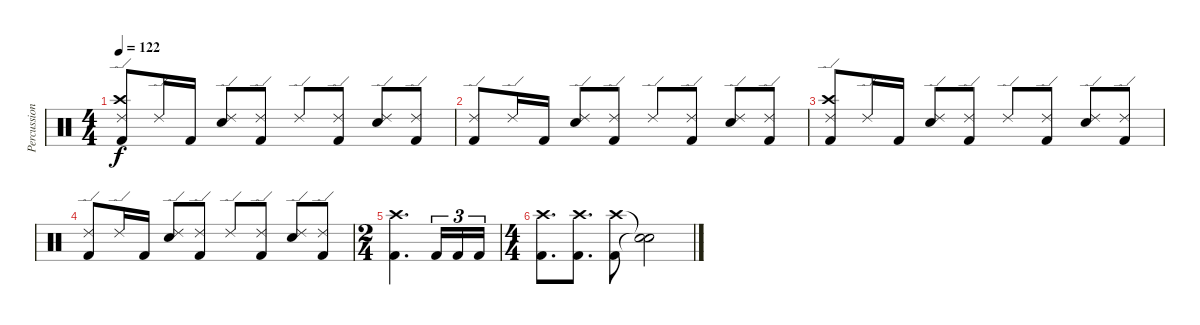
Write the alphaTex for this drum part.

\track ("Percussion" "Percussion") {instrument percussion}
\staff {score}
\articulation defaults
\ts (4 4)
\tempo 122
\clef neutral
\ks c
("Ride (edge) 2" "Crash high (hit)" "Kick (hit) 2").8{dy f} "Ride (edge) 2".16 "Kick (hit) 2".16 ("Ride (edge) 2" "Electric Snare (hit)").8 ("Ride (edge) 2" "Kick (hit) 2").8 "Ride (edge) 2".8 ("Ride (edge) 2" "Kick (hit) 2").8 ("Ride (edge) 2" "Electric Snare (hit)").8 ("Ride (edge) 2" "Kick (hit) 2").8 |
("Ride (edge) 2" "Kick (hit) 2").8 "Ride (edge) 2".16 "Kick (hit) 2".16 ("Ride (edge) 2" "Electric Snare (hit)").8 ("Ride (edge) 2" "Kick (hit) 2").8 "Ride (edge) 2".8 ("Ride (edge) 2" "Kick (hit) 2").8 ("Ride (edge) 2" "Electric Snare (hit)").8 ("Ride (edge) 2" "Kick (hit) 2").8 |
("Ride (edge) 2" "Crash high (hit)" "Kick (hit) 2").8 "Ride (edge) 2".16 "Kick (hit) 2".16 ("Ride (edge) 2" "Electric Snare (hit)").8 ("Ride (edge) 2" "Kick (hit) 2").8 "Ride (edge) 2".8 ("Ride (edge) 2" "Kick (hit) 2").8 ("Ride (edge) 2" "Electric Snare (hit)").8 ("Ride (edge) 2" "Kick (hit) 2").8 |
("Ride (edge) 2" "Kick (hit) 2").8 "Ride (edge) 2".16 "Kick (hit) 2".16 ("Ride (edge) 2" "Electric Snare (hit)").8 ("Ride (edge) 2" "Kick (hit) 2").8 "Ride (edge) 2".8 ("Ride (edge) 2" "Kick (hit) 2").8 ("Ride (edge) 2" "Electric Snare (hit)").8 ("Ride (edge) 2" "Kick (hit) 2").8 |
\ts (2 4)
("Crash high (hit)" "Kick (hit) 2").4{d} "Kick (hit) 2".16{tu (3 2)} "Kick (hit) 2".16{tu (3 2)} "Kick (hit) 2".16{tu (3 2)} |
\ts (4 4)
("Crash high (hit)" "Kick (hit) 2").8{d} ("Crash high (hit)" "Kick (hit) 2").8{d} ("Crash high (hit)" "Kick (hit) 2").8 ("Snare (hit)"{t} "Snare (hit)"{t}).2
